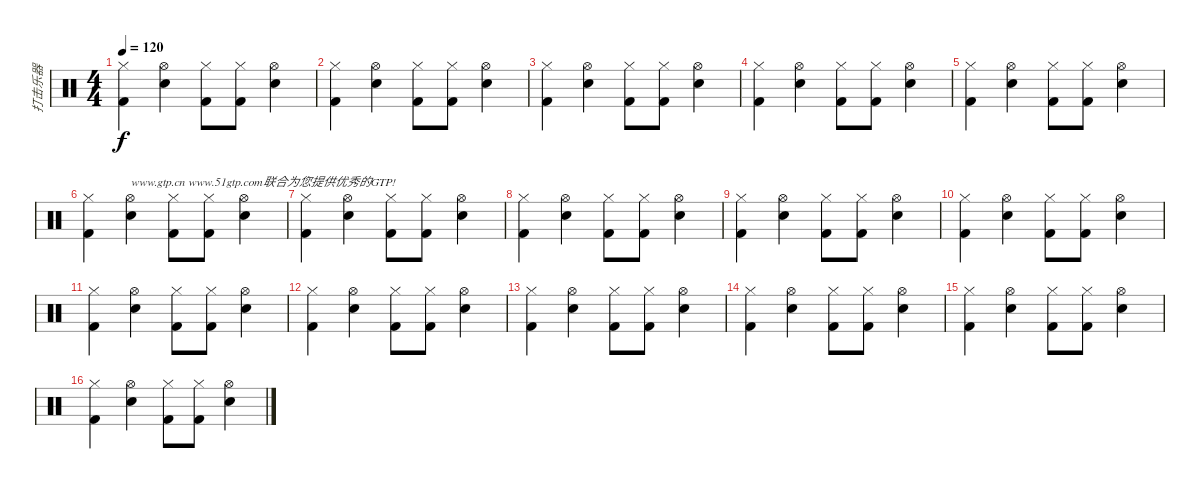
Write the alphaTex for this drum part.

\track ("打击乐器" "打击乐器") {instrument percussion}
\staff {score}
\articulation defaults
\ts (4 4)
\tempo 120
\clef neutral
\ks c
("Hi-Hat (closed)" "Kick (hit) 2").4{dy f} ("Hi-Hat (open)" "Electric Snare (hit)").4 ("Hi-Hat (closed)" "Kick (hit) 2").8 ("Hi-Hat (closed)" "Kick (hit) 2").8 ("Hi-Hat (open)" "Electric Snare (hit)").4 |
("Hi-Hat (closed)" "Kick (hit) 2").4 ("Hi-Hat (open)" "Electric Snare (hit)").4 ("Hi-Hat (closed)" "Kick (hit) 2").8 ("Hi-Hat (closed)" "Kick (hit) 2").8 ("Hi-Hat (open)" "Electric Snare (hit)").4 |
("Hi-Hat (closed)" "Kick (hit) 2").4 ("Hi-Hat (open)" "Electric Snare (hit)").4 ("Hi-Hat (closed)" "Kick (hit) 2").8 ("Hi-Hat (closed)" "Kick (hit) 2").8 ("Hi-Hat (open)" "Electric Snare (hit)").4 |
("Hi-Hat (closed)" "Kick (hit) 2").4 ("Hi-Hat (open)" "Electric Snare (hit)").4 ("Hi-Hat (closed)" "Kick (hit) 2").8 ("Hi-Hat (closed)" "Kick (hit) 2").8 ("Hi-Hat (open)" "Electric Snare (hit)").4 |
("Hi-Hat (closed)" "Kick (hit) 2").4 ("Hi-Hat (open)" "Electric Snare (hit)").4 ("Hi-Hat (closed)" "Kick (hit) 2").8 ("Hi-Hat (closed)" "Kick (hit) 2").8 ("Hi-Hat (open)" "Electric Snare (hit)").4 |
("Hi-Hat (closed)" "Kick (hit) 2").4 ("Hi-Hat (open)" "Electric Snare (hit)").4{txt "www.gtp.cn www.51gtp.com联合为您提供优秀的GTP!"} ("Hi-Hat (closed)" "Kick (hit) 2").8 ("Hi-Hat (closed)" "Kick (hit) 2").8 ("Hi-Hat (open)" "Electric Snare (hit)").4 |
("Hi-Hat (closed)" "Kick (hit) 2").4 ("Hi-Hat (open)" "Electric Snare (hit)").4 ("Hi-Hat (closed)" "Kick (hit) 2").8 ("Hi-Hat (closed)" "Kick (hit) 2").8 ("Hi-Hat (open)" "Electric Snare (hit)").4 |
("Hi-Hat (closed)" "Kick (hit) 2").4 ("Hi-Hat (open)" "Electric Snare (hit)").4 ("Hi-Hat (closed)" "Kick (hit) 2").8 ("Hi-Hat (closed)" "Kick (hit) 2").8 ("Hi-Hat (open)" "Electric Snare (hit)").4 |
("Hi-Hat (closed)" "Kick (hit) 2").4 ("Hi-Hat (open)" "Electric Snare (hit)").4 ("Hi-Hat (closed)" "Kick (hit) 2").8 ("Hi-Hat (closed)" "Kick (hit) 2").8 ("Hi-Hat (open)" "Electric Snare (hit)").4 |
("Hi-Hat (closed)" "Kick (hit) 2").4 ("Hi-Hat (open)" "Electric Snare (hit)").4 ("Hi-Hat (closed)" "Kick (hit) 2").8 ("Hi-Hat (closed)" "Kick (hit) 2").8 ("Hi-Hat (open)" "Electric Snare (hit)").4 |
("Hi-Hat (closed)" "Kick (hit) 2").4 ("Hi-Hat (open)" "Electric Snare (hit)").4 ("Hi-Hat (closed)" "Kick (hit) 2").8 ("Hi-Hat (closed)" "Kick (hit) 2").8 ("Hi-Hat (open)" "Electric Snare (hit)").4 |
("Hi-Hat (closed)" "Kick (hit) 2").4 ("Hi-Hat (open)" "Electric Snare (hit)").4 ("Hi-Hat (closed)" "Kick (hit) 2").8 ("Hi-Hat (closed)" "Kick (hit) 2").8 ("Hi-Hat (open)" "Electric Snare (hit)").4 |
("Hi-Hat (closed)" "Kick (hit) 2").4 ("Hi-Hat (open)" "Electric Snare (hit)").4 ("Hi-Hat (closed)" "Kick (hit) 2").8 ("Hi-Hat (closed)" "Kick (hit) 2").8 ("Hi-Hat (open)" "Electric Snare (hit)").4 |
("Hi-Hat (closed)" "Kick (hit) 2").4 ("Hi-Hat (open)" "Electric Snare (hit)").4 ("Hi-Hat (closed)" "Kick (hit) 2").8 ("Hi-Hat (closed)" "Kick (hit) 2").8 ("Hi-Hat (open)" "Electric Snare (hit)").4 |
("Hi-Hat (closed)" "Kick (hit) 2").4 ("Hi-Hat (open)" "Electric Snare (hit)").4 ("Hi-Hat (closed)" "Kick (hit) 2").8 ("Hi-Hat (closed)" "Kick (hit) 2").8 ("Hi-Hat (open)" "Electric Snare (hit)").4 |
("Hi-Hat (closed)" "Kick (hit) 2").4 ("Hi-Hat (open)" "Electric Snare (hit)").4 ("Hi-Hat (closed)" "Kick (hit) 2").8 ("Hi-Hat (closed)" "Kick (hit) 2").8 ("Hi-Hat (open)" "Electric Snare (hit)").4
